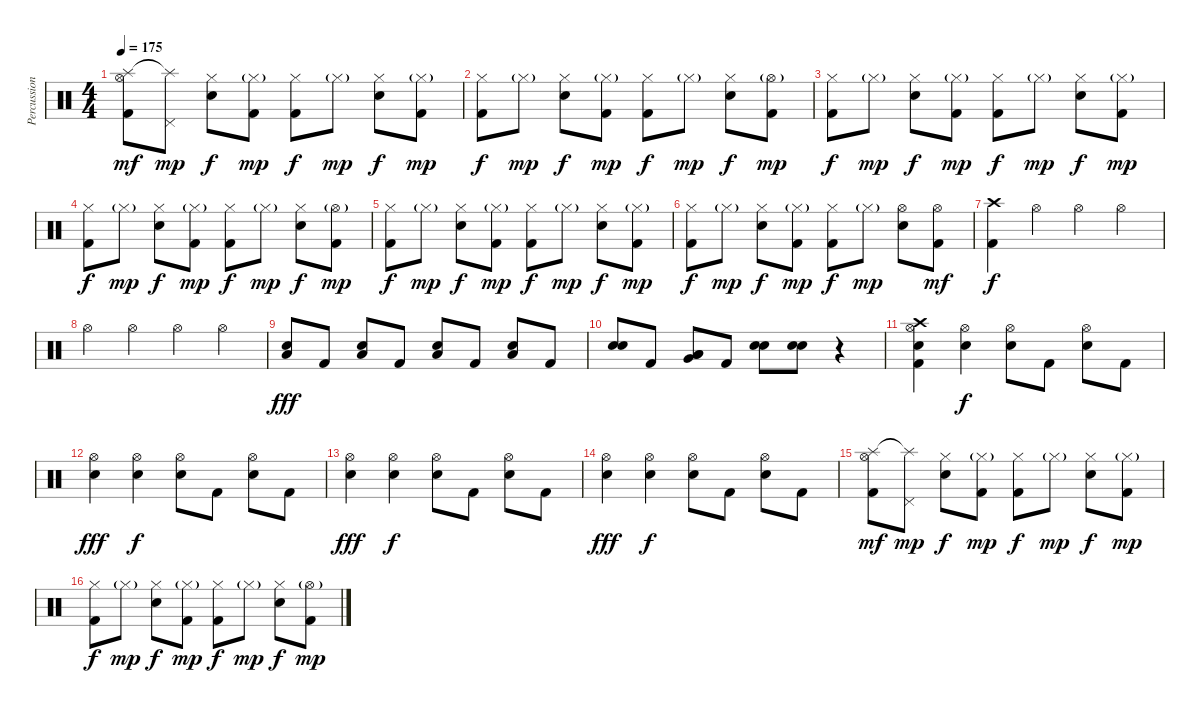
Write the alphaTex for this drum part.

\track ("Percussion" "Percussion") {instrument percussion}
\staff {score}
\articulation defaults
\ts (4 4)
\tempo 175
\clef neutral
\ks c
("Hi-Hat (open)" "Splash (hit)" "Kick (hit) 2").8{dy mf} ("Pedal Hi-Hat (hit)" "Splash (hit)"{t}).8{dy mp} ("Hi-Hat (closed)" "Snare (hit) 2").8{dy f} ("Hi-Hat (closed)"{g} "Kick (hit) 2").8{dy mp} ("Hi-Hat (closed)" "Kick (hit) 2").8{dy f} "Hi-Hat (closed)"{g}.8{dy mp} ("Hi-Hat (closed)" "Snare (hit) 2").8{dy f} ("Hi-Hat (closed)"{g} "Kick (hit) 2").8{dy mp} |
("Hi-Hat (closed)" "Kick (hit) 2").8{dy f} "Hi-Hat (closed)"{g}.8{dy mp} ("Hi-Hat (closed)" "Snare (hit) 2").8{dy f} ("Hi-Hat (closed)"{g} "Kick (hit) 2").8{dy mp} ("Hi-Hat (closed)" "Kick (hit) 2").8{dy f} "Hi-Hat (closed)"{g}.8{dy mp} ("Hi-Hat (closed)" "Snare (hit) 2").8{dy f} ("Hi-Hat (open)"{g} "Kick (hit) 2").8{dy mp} |
("Hi-Hat (closed)" "Kick (hit) 2").8{dy f} "Hi-Hat (closed)"{g}.8{dy mp} ("Hi-Hat (closed)" "Snare (hit) 2").8{dy f} ("Hi-Hat (closed)"{g} "Kick (hit) 2").8{dy mp} ("Hi-Hat (closed)" "Kick (hit) 2").8{dy f} "Hi-Hat (closed)"{g}.8{dy mp} ("Hi-Hat (closed)" "Snare (hit) 2").8{dy f} ("Hi-Hat (closed)"{g} "Kick (hit) 2").8{dy mp} |
("Hi-Hat (closed)" "Kick (hit) 2").8{dy f} "Hi-Hat (closed)"{g}.8{dy mp} ("Hi-Hat (closed)" "Snare (hit) 2").8{dy f} ("Hi-Hat (closed)"{g} "Kick (hit) 2").8{dy mp} ("Hi-Hat (closed)" "Kick (hit) 2").8{dy f} "Hi-Hat (closed)"{g}.8{dy mp} ("Hi-Hat (closed)" "Snare (hit) 2").8{dy f} ("Hi-Hat (open)"{g} "Kick (hit) 2").8{dy mp} |
("Hi-Hat (closed)" "Kick (hit) 2").8{dy f} "Hi-Hat (closed)"{g}.8{dy mp} ("Hi-Hat (closed)" "Snare (hit) 2").8{dy f} ("Hi-Hat (closed)"{g} "Kick (hit) 2").8{dy mp} ("Hi-Hat (closed)" "Kick (hit) 2").8{dy f} "Hi-Hat (closed)"{g}.8{dy mp} ("Hi-Hat (closed)" "Snare (hit) 2").8{dy f} ("Hi-Hat (closed)"{g} "Kick (hit) 2").8{dy mp} |
("Hi-Hat (closed)" "Kick (hit) 2").8{dy f} "Hi-Hat (closed)"{g}.8{dy mp} ("Hi-Hat (closed)" "Snare (hit) 2").8{dy f} ("Hi-Hat (closed)"{g} "Kick (hit) 2").8{dy mp} ("Hi-Hat (closed)" "Kick (hit) 2").8{dy f} "Hi-Hat (closed)"{g}.8{dy mp} ("Hi-Hat (open)" "Snare (hit) 2").8 ("Hi-Hat (open)" "Kick (hit) 2").8{dy mf} |
("Crash high (hit)" "Kick (hit) 2").4{dy f} "Hi-Hat (open)".4 "Hi-Hat (open)".4 "Hi-Hat (open)".4 |
"Hi-Hat (open)".4 "Hi-Hat (open)".4 "Hi-Hat (open)".4 "Hi-Hat (open)".4 |
("Low Floor Tom (hit)" "Snare (hit) 2").8{dy fff} "Kick (hit) 2".8 ("Low Floor Tom (hit)" "Snare (hit) 2").8 "Kick (hit) 2".8 ("Low Floor Tom (hit)" "Snare (hit) 2").8 "Kick (hit) 2".8 ("Low Floor Tom (hit)" "Snare (hit) 2").8 "Kick (hit) 2".8 |
("Electric Snare (hit)" "Snare (hit) 2").8 "Kick (hit) 2".8 ("Low Tom (hit)" "Low Floor Tom (hit)" "Very Low Tom (hit)").8 "Kick (hit) 2".8 ("Electric Snare (hit)" "Snare (hit) 2").8 ("Electric Snare (hit)" "Snare (hit) 2").8 r.4 |
("Hi-Hat (open)" "Crash high (hit)" "Snare (hit) 2" "Kick (hit) 2").4 ("Hi-Hat (open)" "Snare (hit) 2").4{dy f} ("Hi-Hat (open)" "Snare (hit) 2").8 "Kick (hit) 2".8 ("Hi-Hat (open)" "Snare (hit) 2").8 "Kick (hit) 2".8 |
("Hi-Hat (open)" "Snare (hit) 2").4{dy fff} ("Hi-Hat (open)" "Snare (hit) 2").4{dy f} ("Hi-Hat (open)" "Snare (hit) 2").8 "Kick (hit) 2".8 ("Hi-Hat (open)" "Snare (hit) 2").8 "Kick (hit) 2".8 |
("Hi-Hat (open)" "Snare (hit) 2").4{dy fff} ("Hi-Hat (open)" "Snare (hit) 2").4{dy f} ("Hi-Hat (open)" "Snare (hit) 2").8 "Kick (hit) 2".8 ("Hi-Hat (open)" "Snare (hit) 2").8 "Kick (hit) 2".8 |
("Hi-Hat (open)" "Snare (hit) 2").4{dy fff} ("Hi-Hat (open)" "Snare (hit) 2").4{dy f} ("Hi-Hat (open)" "Snare (hit) 2").8 "Kick (hit) 2".8 ("Hi-Hat (open)" "Snare (hit) 2").8 "Kick (hit) 2".8 |
("Hi-Hat (open)" "Splash (hit)" "Kick (hit) 2").8{dy mf} ("Pedal Hi-Hat (hit)" "Splash (hit)"{t}).8{dy mp} ("Hi-Hat (closed)" "Snare (hit) 2").8{dy f} ("Hi-Hat (closed)"{g} "Kick (hit) 2").8{dy mp} ("Hi-Hat (closed)" "Kick (hit) 2").8{dy f} "Hi-Hat (closed)"{g}.8{dy mp} ("Hi-Hat (closed)" "Snare (hit) 2").8{dy f} ("Hi-Hat (closed)"{g} "Kick (hit) 2").8{dy mp} |
("Hi-Hat (closed)" "Kick (hit) 2").8{dy f} "Hi-Hat (closed)"{g}.8{dy mp} ("Hi-Hat (closed)" "Snare (hit) 2").8{dy f} ("Hi-Hat (closed)"{g} "Kick (hit) 2").8{dy mp} ("Hi-Hat (closed)" "Kick (hit) 2").8{dy f} "Hi-Hat (closed)"{g}.8{dy mp} ("Hi-Hat (closed)" "Snare (hit) 2").8{dy f} ("Hi-Hat (open)"{g} "Kick (hit) 2").8{dy mp}
